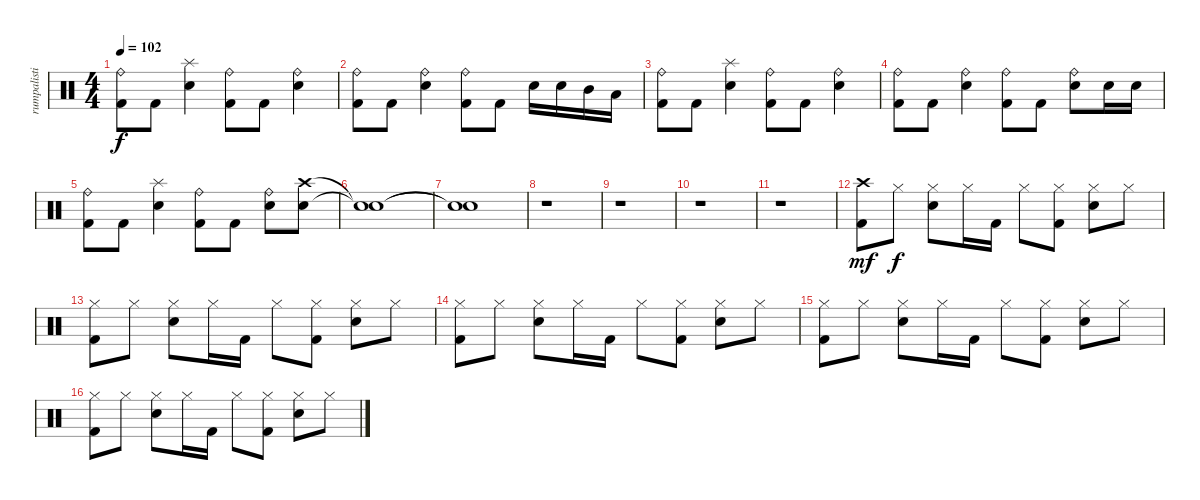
\track ("rumpalisti" "rumpalisti") {instrument percussion}
\staff {score}
\articulation defaults
\ts (4 4)
\tempo 102
\clef neutral
\ks c
("Kick (hit) 2" "Ride (bell)").8{dy f} "Kick (hit) 2".8 ("Splash (hit)" "Snare (hit) 2").4 ("Kick (hit) 2" "Ride (bell)").8 "Kick (hit) 2".8 ("Ride (bell)" "Snare (hit) 2").4 |
("Kick (hit) 2" "Ride (bell)").8 "Kick (hit) 2".8 ("Ride (bell)" "Snare (hit) 2").4 ("Kick (hit) 2" "Ride (bell)").8 "Kick (hit) 2".8 "Snare (hit) 2".16 "Snare (hit) 2".16 "Mid Tom (hit)".16 "Low Tom (hit)".16 |
("Kick (hit) 2" "Ride (bell)").8 "Kick (hit) 2".8 ("Splash (hit)" "Snare (hit) 2").4 ("Kick (hit) 2" "Ride (bell)").8 "Kick (hit) 2".8 ("Ride (bell)" "Snare (hit) 2").4 |
("Kick (hit) 2" "Ride (bell)").8 "Kick (hit) 2".8 ("Ride (bell)" "Snare (hit) 2").4 ("Kick (hit) 2" "Ride (bell)").8 "Kick (hit) 2".8 ("Ride (bell)" "Snare (hit) 2").8 "Snare (hit) 2".16 "Snare (hit) 2".16 |
("Kick (hit) 2" "Ride (bell)").8 "Kick (hit) 2".8 ("Splash (hit)" "Snare (hit) 2").4 ("Kick (hit) 2" "Ride (bell)").8 "Kick (hit) 2".8 ("Ride (bell)" "Snare (hit) 2").8 ("Crash high (hit)" "Snare (hit) 2").8 |
("Snare (hit)"{t} "Snare (hit)"{t}).1 |
("Snare (hit)"{t} "Snare (hit)"{t}).1 |
r.1 |
r.1 |
r.1 |
r.1 |
("Kick (hit) 2" "Crash high (hit)").8{dy mf} "Hi-Hat (closed)".8{dy f} ("Hi-Hat (closed)" "Snare (hit) 2").8 "Hi-Hat (closed)".16 "Kick (hit) 2".16 "Hi-Hat (closed)".8 ("Kick (hit) 2" "Hi-Hat (closed)").8 ("Hi-Hat (closed)" "Snare (hit) 2").8 "Hi-Hat (closed)".8 |
("Kick (hit) 2" "Hi-Hat (closed)").8 "Hi-Hat (closed)".8 ("Hi-Hat (closed)" "Snare (hit) 2").8 "Hi-Hat (closed)".16 "Kick (hit) 2".16 "Hi-Hat (closed)".8 ("Kick (hit) 2" "Hi-Hat (closed)").8 ("Hi-Hat (closed)" "Snare (hit) 2").8 "Hi-Hat (closed)".8 |
("Kick (hit) 2" "Hi-Hat (closed)").8 "Hi-Hat (closed)".8 ("Hi-Hat (closed)" "Snare (hit) 2").8 "Hi-Hat (closed)".16 "Kick (hit) 2".16 "Hi-Hat (closed)".8 ("Kick (hit) 2" "Hi-Hat (closed)").8 ("Hi-Hat (closed)" "Snare (hit) 2").8 "Hi-Hat (closed)".8 |
("Kick (hit) 2" "Hi-Hat (closed)").8 "Hi-Hat (closed)".8 ("Hi-Hat (closed)" "Snare (hit) 2").8 "Hi-Hat (closed)".16 "Kick (hit) 2".16 "Hi-Hat (closed)".8 ("Kick (hit) 2" "Hi-Hat (closed)").8 ("Hi-Hat (closed)" "Snare (hit) 2").8 "Hi-Hat (closed)".8 |
("Kick (hit) 2" "Hi-Hat (closed)").8 "Hi-Hat (closed)".8 ("Hi-Hat (closed)" "Snare (hit) 2").8 "Hi-Hat (closed)".16 "Kick (hit) 2".16 "Hi-Hat (closed)".8 ("Kick (hit) 2" "Hi-Hat (closed)").8 ("Hi-Hat (closed)" "Snare (hit) 2").8 "Hi-Hat (closed)".8
